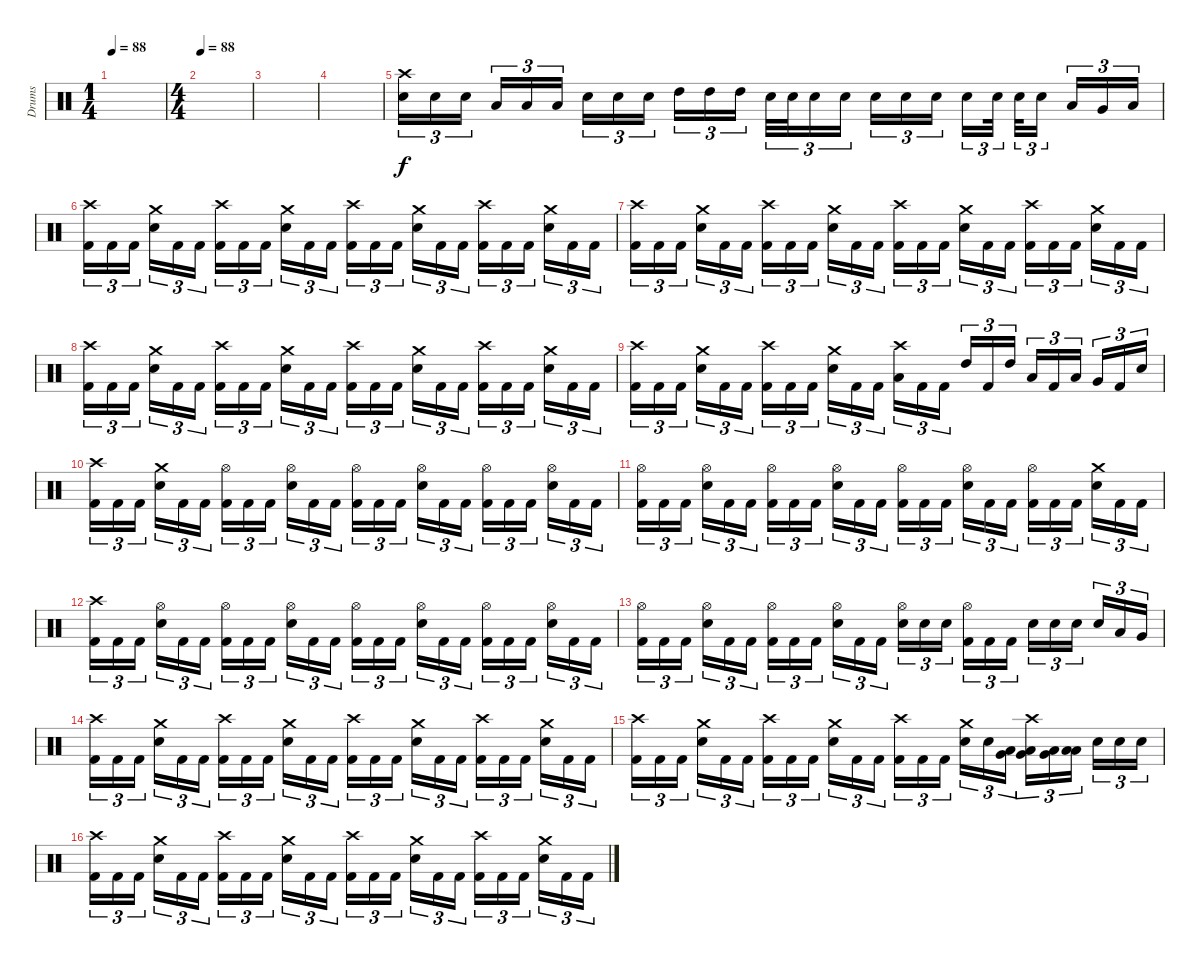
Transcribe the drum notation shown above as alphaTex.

\track ("Drums" "Drums") {instrument percussion}
\staff {score}
\articulation defaults
\ts (1 4)
\tempo 88
\tempo 83
\tempo 88
\clef neutral
\ks c
|
\ts (4 4)
\tempo 88
|
|
|
("Crash high (hit)" "Electric Snare (hit)").16{tu (3 2)} "Electric Snare (hit)".16{tu (3 2)} "Electric Snare (hit)".16{tu (3 2)} "Low Tom (hit)".16{tu (3 2)} "Low Tom (hit)".16{tu (3 2)} "Low Tom (hit)".16{tu (3 2)} "Electric Snare (hit)".16{tu (3 2)} "Electric Snare (hit)".16{tu (3 2)} "Electric Snare (hit)".16{tu (3 2)} "High Tom (hit)".16{tu (3 2)} "High Tom (hit)".16{tu (3 2)} "High Tom (hit)".16{tu (3 2)} "Electric Snare (hit)".32{tu (3 2)} "Electric Snare (hit)".32{tu (3 2)} "Electric Snare (hit)".16{tu (3 2)} "Electric Snare (hit)".16{tu (3 2)} "Electric Snare (hit)".16{tu (3 2)} "Electric Snare (hit)".16{tu (3 2)} "Electric Snare (hit)".16{tu (3 2)} "Electric Snare (hit)".16{tu (3 2)} "Electric Snare (hit)".32{tu (3 2)} "Electric Snare (hit)".32{tu (3 2)} "Electric Snare (hit)".16{tu (3 2)} "Low Tom (hit)".16{tu (3 2)} "Very Low Tom (hit)".16{tu (3 2)} "Low Floor Tom (hit)".16{tu (3 2)} |
("Crash high (hit)" "Kick (hit) 2").16{tu (3 2)} "Kick (hit) 2".16{tu (3 2)} "Kick (hit) 2".16{tu (3 2)} ("Crash medium (hit)" "Electric Snare (hit)").16{tu (3 2)} "Kick (hit) 2".16{tu (3 2)} "Kick (hit) 2".16{tu (3 2)} ("Crash high (hit)" "Kick (hit) 2").16{tu (3 2)} "Kick (hit) 2".16{tu (3 2)} "Kick (hit) 2".16{tu (3 2)} ("Crash medium (hit)" "Electric Snare (hit)").16{tu (3 2)} "Kick (hit) 2".16{tu (3 2)} "Kick (hit) 2".16{tu (3 2)} ("Crash high (hit)" "Kick (hit) 2").16{tu (3 2)} "Kick (hit) 2".16{tu (3 2)} "Kick (hit) 2".16{tu (3 2)} ("Crash medium (hit)" "Electric Snare (hit)").16{tu (3 2)} "Kick (hit) 2".16{tu (3 2)} "Kick (hit) 2".16{tu (3 2)} ("Crash high (hit)" "Kick (hit) 2").16{tu (3 2)} "Kick (hit) 2".16{tu (3 2)} "Kick (hit) 2".16{tu (3 2)} ("Crash medium (hit)" "Electric Snare (hit)").16{tu (3 2)} "Kick (hit) 2".16{tu (3 2)} "Kick (hit) 2".16{tu (3 2)} |
("Crash high (hit)" "Kick (hit) 2").16{tu (3 2)} "Kick (hit) 2".16{tu (3 2)} "Kick (hit) 2".16{tu (3 2)} ("Crash medium (hit)" "Electric Snare (hit)").16{tu (3 2)} "Kick (hit) 2".16{tu (3 2)} "Kick (hit) 2".16{tu (3 2)} ("Crash high (hit)" "Kick (hit) 2").16{tu (3 2)} "Kick (hit) 2".16{tu (3 2)} "Kick (hit) 2".16{tu (3 2)} ("Crash medium (hit)" "Electric Snare (hit)").16{tu (3 2)} "Kick (hit) 2".16{tu (3 2)} "Kick (hit) 2".16{tu (3 2)} ("Crash high (hit)" "Kick (hit) 2").16{tu (3 2)} "Kick (hit) 2".16{tu (3 2)} "Kick (hit) 2".16{tu (3 2)} ("Crash medium (hit)" "Electric Snare (hit)").16{tu (3 2)} "Kick (hit) 2".16{tu (3 2)} "Kick (hit) 2".16{tu (3 2)} ("Crash high (hit)" "Kick (hit) 2").16{tu (3 2)} "Kick (hit) 2".16{tu (3 2)} "Kick (hit) 2".16{tu (3 2)} ("Crash medium (hit)" "Electric Snare (hit)").16{tu (3 2)} "Kick (hit) 2".16{tu (3 2)} "Kick (hit) 2".16{tu (3 2)} |
("Crash high (hit)" "Kick (hit) 2").16{tu (3 2)} "Kick (hit) 2".16{tu (3 2)} "Kick (hit) 2".16{tu (3 2)} ("Crash medium (hit)" "Electric Snare (hit)").16{tu (3 2)} "Kick (hit) 2".16{tu (3 2)} "Kick (hit) 2".16{tu (3 2)} ("Crash high (hit)" "Kick (hit) 2").16{tu (3 2)} "Kick (hit) 2".16{tu (3 2)} "Kick (hit) 2".16{tu (3 2)} ("Crash medium (hit)" "Electric Snare (hit)").16{tu (3 2)} "Kick (hit) 2".16{tu (3 2)} "Kick (hit) 2".16{tu (3 2)} ("Crash high (hit)" "Kick (hit) 2").16{tu (3 2)} "Kick (hit) 2".16{tu (3 2)} "Kick (hit) 2".16{tu (3 2)} ("Crash medium (hit)" "Electric Snare (hit)").16{tu (3 2)} "Kick (hit) 2".16{tu (3 2)} "Kick (hit) 2".16{tu (3 2)} ("Crash high (hit)" "Kick (hit) 2").16{tu (3 2)} "Kick (hit) 2".16{tu (3 2)} "Kick (hit) 2".16{tu (3 2)} ("Crash medium (hit)" "Electric Snare (hit)").16{tu (3 2)} "Kick (hit) 2".16{tu (3 2)} "Kick (hit) 2".16{tu (3 2)} |
("Crash high (hit)" "Kick (hit) 2").16{tu (3 2)} "Kick (hit) 2".16{tu (3 2)} "Kick (hit) 2".16{tu (3 2)} ("Crash medium (hit)" "Electric Snare (hit)").16{tu (3 2)} "Kick (hit) 2".16{tu (3 2)} "Kick (hit) 2".16{tu (3 2)} ("Crash high (hit)" "Kick (hit) 2").16{tu (3 2)} "Kick (hit) 2".16{tu (3 2)} "Kick (hit) 2".16{tu (3 2)} ("Crash medium (hit)" "Electric Snare (hit)").16{tu (3 2)} "Kick (hit) 2".16{tu (3 2)} "Kick (hit) 2".16{tu (3 2)} ("Crash high (hit)" "Low Tom (hit)").16{tu (3 2)} "Kick (hit) 2".16{tu (3 2)} "Kick (hit) 2".16{tu (3 2)} "High Tom (hit)".16{tu (3 2)} "Kick (hit) 2".16{tu (3 2)} "High Tom (hit)".16{tu (3 2)} "Low Tom (hit)".16{tu (3 2)} "Kick (hit) 2".16{tu (3 2)} "Low Tom (hit)".16{tu (3 2)} "Very Low Tom (hit)".16{tu (3 2)} "Kick (hit) 2".16{tu (3 2)} "Electric Snare (hit)".16{tu (3 2)} |
("Crash high (hit)" "Kick (hit) 2").16{tu (3 2)} "Kick (hit) 2".16{tu (3 2)} "Kick (hit) 2".16{tu (3 2)} ("Crash medium (hit)" "Electric Snare (hit)").16{tu (3 2)} "Kick (hit) 2".16{tu (3 2)} "Kick (hit) 2".16{tu (3 2)} ("Hi-Hat (open)" "Kick (hit) 2").16{tu (3 2)} "Kick (hit) 2".16{tu (3 2)} "Kick (hit) 2".16{tu (3 2)} ("Hi-Hat (open)" "Electric Snare (hit)").16{tu (3 2)} "Kick (hit) 2".16{tu (3 2)} "Kick (hit) 2".16{tu (3 2)} ("Hi-Hat (open)" "Kick (hit) 2").16{tu (3 2)} "Kick (hit) 2".16{tu (3 2)} "Kick (hit) 2".16{tu (3 2)} ("Hi-Hat (open)" "Electric Snare (hit)").16{tu (3 2)} "Kick (hit) 2".16{tu (3 2)} "Kick (hit) 2".16{tu (3 2)} ("Hi-Hat (open)" "Kick (hit) 2").16{tu (3 2)} "Kick (hit) 2".16{tu (3 2)} "Kick (hit) 2".16{tu (3 2)} ("Hi-Hat (open)" "Electric Snare (hit)").16{tu (3 2)} "Kick (hit) 2".16{tu (3 2)} "Kick (hit) 2".16{tu (3 2)} |
("Hi-Hat (open)" "Kick (hit) 2").16{tu (3 2)} "Kick (hit) 2".16{tu (3 2)} "Kick (hit) 2".16{tu (3 2)} ("Hi-Hat (open)" "Electric Snare (hit)").16{tu (3 2)} "Kick (hit) 2".16{tu (3 2)} "Kick (hit) 2".16{tu (3 2)} ("Hi-Hat (open)" "Kick (hit) 2").16{tu (3 2)} "Kick (hit) 2".16{tu (3 2)} "Kick (hit) 2".16{tu (3 2)} ("Hi-Hat (open)" "Electric Snare (hit)").16{tu (3 2)} "Kick (hit) 2".16{tu (3 2)} "Kick (hit) 2".16{tu (3 2)} ("Hi-Hat (open)" "Kick (hit) 2").16{tu (3 2)} "Kick (hit) 2".16{tu (3 2)} "Kick (hit) 2".16{tu (3 2)} ("Hi-Hat (open)" "Electric Snare (hit)").16{tu (3 2)} "Kick (hit) 2".16{tu (3 2)} "Kick (hit) 2".16{tu (3 2)} ("Hi-Hat (open)" "Kick (hit) 2").16{tu (3 2)} "Kick (hit) 2".16{tu (3 2)} "Kick (hit) 2".16{tu (3 2)} ("Crash medium (hit)" "Electric Snare (hit)").16{tu (3 2)} "Kick (hit) 2".16{tu (3 2)} "Kick (hit) 2".16{tu (3 2)} |
("Crash high (hit)" "Kick (hit) 2").16{tu (3 2)} "Kick (hit) 2".16{tu (3 2)} "Kick (hit) 2".16{tu (3 2)} ("Hi-Hat (open)" "Electric Snare (hit)").16{tu (3 2)} "Kick (hit) 2".16{tu (3 2)} "Kick (hit) 2".16{tu (3 2)} ("Hi-Hat (open)" "Kick (hit) 2").16{tu (3 2)} "Kick (hit) 2".16{tu (3 2)} "Kick (hit) 2".16{tu (3 2)} ("Hi-Hat (open)" "Electric Snare (hit)").16{tu (3 2)} "Kick (hit) 2".16{tu (3 2)} "Kick (hit) 2".16{tu (3 2)} ("Hi-Hat (open)" "Kick (hit) 2").16{tu (3 2)} "Kick (hit) 2".16{tu (3 2)} "Kick (hit) 2".16{tu (3 2)} ("Hi-Hat (open)" "Electric Snare (hit)").16{tu (3 2)} "Kick (hit) 2".16{tu (3 2)} "Kick (hit) 2".16{tu (3 2)} ("Hi-Hat (open)" "Kick (hit) 2").16{tu (3 2)} "Kick (hit) 2".16{tu (3 2)} "Kick (hit) 2".16{tu (3 2)} ("Hi-Hat (open)" "Electric Snare (hit)").16{tu (3 2)} "Kick (hit) 2".16{tu (3 2)} "Kick (hit) 2".16{tu (3 2)} |
("Hi-Hat (open)" "Kick (hit) 2").16{tu (3 2)} "Kick (hit) 2".16{tu (3 2)} "Kick (hit) 2".16{tu (3 2)} ("Hi-Hat (open)" "Electric Snare (hit)").16{tu (3 2)} "Kick (hit) 2".16{tu (3 2)} "Kick (hit) 2".16{tu (3 2)} ("Hi-Hat (open)" "Kick (hit) 2").16{tu (3 2)} "Kick (hit) 2".16{tu (3 2)} "Kick (hit) 2".16{tu (3 2)} ("Hi-Hat (open)" "Electric Snare (hit)").16{tu (3 2)} "Kick (hit) 2".16{tu (3 2)} "Kick (hit) 2".16{tu (3 2)} ("Hi-Hat (open)" "Electric Snare (hit)").16{tu (3 2)} "Electric Snare (hit)".16{tu (3 2)} "Electric Snare (hit)".16{tu (3 2)} ("Hi-Hat (open)" "Kick (hit) 2").16{tu (3 2)} "Kick (hit) 2".16{tu (3 2)} "Kick (hit) 2".16{tu (3 2)} "Electric Snare (hit)".16{tu (3 2)} "Electric Snare (hit)".16{tu (3 2)} "Electric Snare (hit)".16{tu (3 2)} "Electric Snare (hit)".16{tu (3 2)} "Low Tom (hit)".16{tu (3 2)} "Very Low Tom (hit)".16{tu (3 2)} |
("Crash high (hit)" "Kick (hit) 2").16{tu (3 2)} "Kick (hit) 2".16{tu (3 2)} "Kick (hit) 2".16{tu (3 2)} ("Crash medium (hit)" "Electric Snare (hit)").16{tu (3 2)} "Kick (hit) 2".16{tu (3 2)} "Kick (hit) 2".16{tu (3 2)} ("Crash high (hit)" "Kick (hit) 2").16{tu (3 2)} "Kick (hit) 2".16{tu (3 2)} "Kick (hit) 2".16{tu (3 2)} ("Crash medium (hit)" "Electric Snare (hit)").16{tu (3 2)} "Kick (hit) 2".16{tu (3 2)} "Kick (hit) 2".16{tu (3 2)} ("Crash high (hit)" "Kick (hit) 2").16{tu (3 2)} "Kick (hit) 2".16{tu (3 2)} "Kick (hit) 2".16{tu (3 2)} ("Crash medium (hit)" "Electric Snare (hit)").16{tu (3 2)} "Kick (hit) 2".16{tu (3 2)} "Kick (hit) 2".16{tu (3 2)} ("Crash high (hit)" "Kick (hit) 2").16{tu (3 2)} "Kick (hit) 2".16{tu (3 2)} "Kick (hit) 2".16{tu (3 2)} ("Crash medium (hit)" "Electric Snare (hit)").16{tu (3 2)} "Kick (hit) 2".16{tu (3 2)} "Kick (hit) 2".16{tu (3 2)} |
("Crash high (hit)" "Kick (hit) 2").16{tu (3 2)} "Kick (hit) 2".16{tu (3 2)} "Kick (hit) 2".16{tu (3 2)} ("Crash medium (hit)" "Electric Snare (hit)").16{tu (3 2)} "Kick (hit) 2".16{tu (3 2)} "Kick (hit) 2".16{tu (3 2)} ("Crash high (hit)" "Kick (hit) 2").16{tu (3 2)} "Kick (hit) 2".16{tu (3 2)} "Kick (hit) 2".16{tu (3 2)} ("Crash medium (hit)" "Electric Snare (hit)").16{tu (3 2)} "Kick (hit) 2".16{tu (3 2)} "Kick (hit) 2".16{tu (3 2)} ("Crash high (hit)" "Kick (hit) 2").16{tu (3 2)} "Kick (hit) 2".16{tu (3 2)} "Kick (hit) 2".16{tu (3 2)} ("Crash medium (hit)" "Electric Snare (hit)").16{tu (3 2)} "Electric Snare (hit)".16{tu (3 2)} ("Low Tom (hit)" "Very Low Tom (hit)").16{tu (3 2)} ("Crash high (hit)" "Very Low Tom (hit)" "Low Floor Tom (hit)").16{tu (3 2)} ("Very Low Tom (hit)" "Low Floor Tom (hit)").16{tu (3 2)} ("Low Floor Tom (hit)" "Low Floor Tom (hit)").16{tu (3 2)} "Electric Snare (hit)".16{tu (3 2)} "Electric Snare (hit)".16{tu (3 2)} "Electric Snare (hit)".16{tu (3 2)} |
("Crash high (hit)" "Kick (hit) 2").16{tu (3 2)} "Kick (hit) 2".16{tu (3 2)} "Kick (hit) 2".16{tu (3 2)} ("Crash medium (hit)" "Electric Snare (hit)").16{tu (3 2)} "Kick (hit) 2".16{tu (3 2)} "Kick (hit) 2".16{tu (3 2)} ("Crash high (hit)" "Kick (hit) 2").16{tu (3 2)} "Kick (hit) 2".16{tu (3 2)} "Kick (hit) 2".16{tu (3 2)} ("Crash medium (hit)" "Electric Snare (hit)").16{tu (3 2)} "Kick (hit) 2".16{tu (3 2)} "Kick (hit) 2".16{tu (3 2)} ("Crash high (hit)" "Kick (hit) 2").16{tu (3 2)} "Kick (hit) 2".16{tu (3 2)} "Kick (hit) 2".16{tu (3 2)} ("Crash medium (hit)" "Electric Snare (hit)").16{tu (3 2)} "Kick (hit) 2".16{tu (3 2)} "Kick (hit) 2".16{tu (3 2)} ("Crash high (hit)" "Kick (hit) 2").16{tu (3 2)} "Kick (hit) 2".16{tu (3 2)} "Kick (hit) 2".16{tu (3 2)} ("Crash medium (hit)" "Electric Snare (hit)").16{tu (3 2)} "Kick (hit) 2".16{tu (3 2)} "Kick (hit) 2".16{tu (3 2)}
